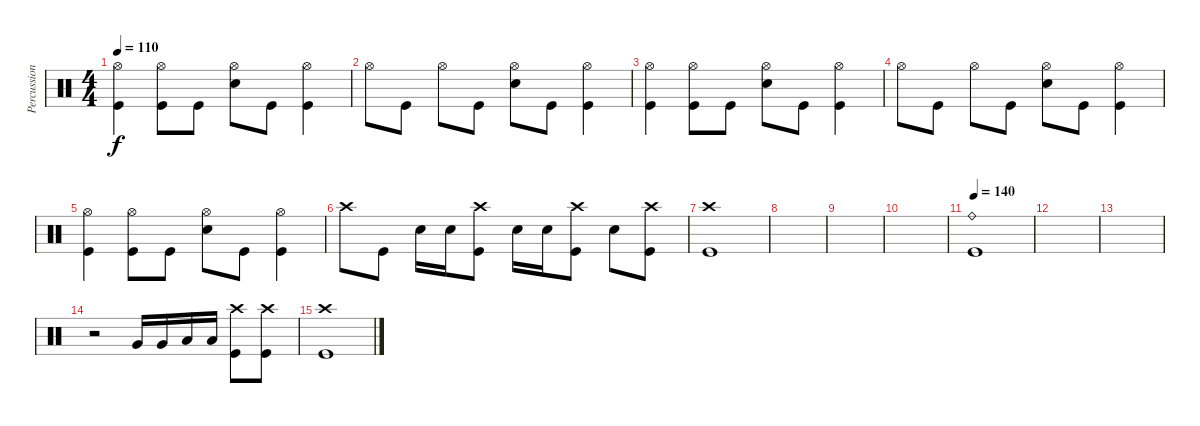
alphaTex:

\track ("Percussion" "Percussion") {instrument percussion}
\staff {score}
\articulation defaults
\ts (4 4)
\tempo 110
\clef neutral
\ks c
("Hi-Hat (open)" "Kick (hit)").4{dy f} ("Hi-Hat (open)" "Kick (hit)").8 "Kick (hit)".8 ("Hi-Hat (open)" "Electric Snare (hit)").8 "Kick (hit)".8 ("Hi-Hat (open)" "Kick (hit)").4 |
"Hi-Hat (open)".8 "Kick (hit)".8 "Hi-Hat (open)".8 "Kick (hit)".8 ("Hi-Hat (open)" "Electric Snare (hit)").8 "Kick (hit)".8 ("Hi-Hat (open)" "Kick (hit)").4 |
("Hi-Hat (open)" "Kick (hit)").4 ("Hi-Hat (open)" "Kick (hit)").8 "Kick (hit)".8 ("Hi-Hat (open)" "Electric Snare (hit)").8 "Kick (hit)".8 ("Hi-Hat (open)" "Kick (hit)").4 |
"Hi-Hat (open)".8 "Kick (hit)".8 "Hi-Hat (open)".8 "Kick (hit)".8 ("Hi-Hat (open)" "Electric Snare (hit)").8 "Kick (hit)".8 ("Hi-Hat (open)" "Kick (hit)").4 |
("Hi-Hat (open)" "Kick (hit)").4 ("Hi-Hat (open)" "Kick (hit)").8 "Kick (hit)".8 ("Hi-Hat (open)" "Electric Snare (hit)").8 "Kick (hit)".8 ("Hi-Hat (open)" "Kick (hit)").4 |
"Crash high (hit)".8 "Kick (hit)".8 "Electric Snare (hit)".16 "Electric Snare (hit)".16 ("Crash high (hit)" "Kick (hit)").8 "Electric Snare (hit)".16 "Electric Snare (hit)".16 ("Crash high (hit)" "Kick (hit)").8 "Electric Snare (hit)".8 ("Crash high (hit)" "Kick (hit)").8 |
("Crash high (hit)" "Kick (hit)").1 |
|
|
|
\tempo 140
("Ride (bell)" "Kick (hit)").1 |
|
|
r.2 "Very Low Tom (hit)".16 "Very Low Tom (hit)".16 "Low Floor Tom (hit)".16 "Low Floor Tom (hit)".16 ("Crash high (hit)" "Kick (hit)").8 ("Crash high (hit)" "Kick (hit)").8 |
("Crash high (hit)" "Kick (hit)").1
